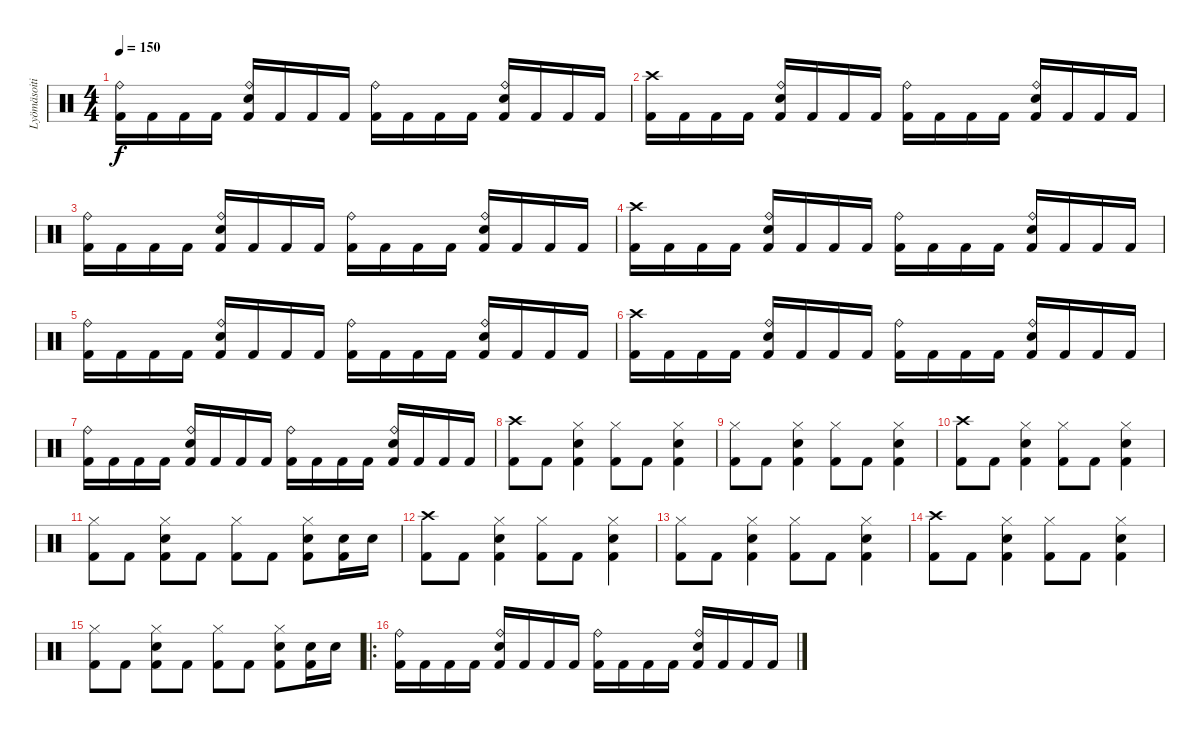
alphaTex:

\track ("Lyömäsoitin" "Lyömäsoiti") {instrument percussion}
\staff {score}
\articulation defaults
\ts (4 4)
\tempo 150
\clef neutral
\ks c
("Kick (hit) 2" "Ride (bell)").16{dy f} "Kick (hit) 2".16 "Kick (hit) 2".16 "Kick (hit) 2".16 ("Kick (hit) 2" "Ride (bell)" "Electric Snare (hit)").16 "Kick (hit) 2".16 "Kick (hit) 2".16 "Kick (hit) 2".16 ("Kick (hit) 2" "Ride (bell)").16 "Kick (hit) 2".16 "Kick (hit) 2".16 "Kick (hit) 2".16 ("Kick (hit) 2" "Ride (bell)" "Electric Snare (hit)").16 "Kick (hit) 2".16 "Kick (hit) 2".16 "Kick (hit) 2".16 |
("Kick (hit) 2" "Crash high (hit)").16 "Kick (hit) 2".16 "Kick (hit) 2".16 "Kick (hit) 2".16 ("Kick (hit) 2" "Electric Snare (hit)" "Ride (bell)").16 "Kick (hit) 2".16 "Kick (hit) 2".16 "Kick (hit) 2".16 ("Kick (hit) 2" "Ride (bell)").16 "Kick (hit) 2".16 "Kick (hit) 2".16 "Kick (hit) 2".16 ("Kick (hit) 2" "Ride (bell)" "Electric Snare (hit)").16 "Kick (hit) 2".16 "Kick (hit) 2".16 "Kick (hit) 2".16 |
("Kick (hit) 2" "Ride (bell)").16 "Kick (hit) 2".16 "Kick (hit) 2".16 "Kick (hit) 2".16 ("Kick (hit) 2" "Ride (bell)" "Electric Snare (hit)").16 "Kick (hit) 2".16 "Kick (hit) 2".16 "Kick (hit) 2".16 ("Kick (hit) 2" "Ride (bell)").16 "Kick (hit) 2".16 "Kick (hit) 2".16 "Kick (hit) 2".16 ("Kick (hit) 2" "Ride (bell)" "Electric Snare (hit)").16 "Kick (hit) 2".16 "Kick (hit) 2".16 "Kick (hit) 2".16 |
("Kick (hit) 2" "Crash high (hit)").16 "Kick (hit) 2".16 "Kick (hit) 2".16 "Kick (hit) 2".16 ("Kick (hit) 2" "Electric Snare (hit)" "Ride (bell)").16 "Kick (hit) 2".16 "Kick (hit) 2".16 "Kick (hit) 2".16 ("Kick (hit) 2" "Ride (bell)").16 "Kick (hit) 2".16 "Kick (hit) 2".16 "Kick (hit) 2".16 ("Kick (hit) 2" "Ride (bell)" "Electric Snare (hit)").16 "Kick (hit) 2".16 "Kick (hit) 2".16 "Kick (hit) 2".16 |
("Kick (hit) 2" "Ride (bell)").16 "Kick (hit) 2".16 "Kick (hit) 2".16 "Kick (hit) 2".16 ("Kick (hit) 2" "Ride (bell)" "Electric Snare (hit)").16 "Kick (hit) 2".16 "Kick (hit) 2".16 "Kick (hit) 2".16 ("Kick (hit) 2" "Ride (bell)").16 "Kick (hit) 2".16 "Kick (hit) 2".16 "Kick (hit) 2".16 ("Kick (hit) 2" "Ride (bell)" "Electric Snare (hit)").16 "Kick (hit) 2".16 "Kick (hit) 2".16 "Kick (hit) 2".16 |
("Kick (hit) 2" "Crash high (hit)").16 "Kick (hit) 2".16 "Kick (hit) 2".16 "Kick (hit) 2".16 ("Kick (hit) 2" "Electric Snare (hit)" "Ride (bell)").16 "Kick (hit) 2".16 "Kick (hit) 2".16 "Kick (hit) 2".16 ("Kick (hit) 2" "Ride (bell)").16 "Kick (hit) 2".16 "Kick (hit) 2".16 "Kick (hit) 2".16 ("Kick (hit) 2" "Ride (bell)" "Electric Snare (hit)").16 "Kick (hit) 2".16 "Kick (hit) 2".16 "Kick (hit) 2".16 |
("Kick (hit) 2" "Ride (bell)").16 "Kick (hit) 2".16 "Kick (hit) 2".16 "Kick (hit) 2".16 ("Kick (hit) 2" "Ride (bell)" "Electric Snare (hit)").16 "Kick (hit) 2".16 "Kick (hit) 2".16 "Kick (hit) 2".16 ("Kick (hit) 2" "Ride (bell)").16 "Kick (hit) 2".16 "Kick (hit) 2".16 "Kick (hit) 2".16 ("Kick (hit) 2" "Ride (bell)" "Electric Snare (hit)").16 "Kick (hit) 2".16 "Kick (hit) 2".16 "Kick (hit) 2".16 |
("Kick (hit) 2" "Crash high (hit)").8 "Kick (hit) 2".8 ("Kick (hit) 2" "Hi-Hat (closed)" "Electric Snare (hit)").4 ("Kick (hit) 2" "Hi-Hat (closed)").8 "Kick (hit) 2".8 ("Kick (hit) 2" "Hi-Hat (closed)" "Electric Snare (hit)").4 |
("Kick (hit) 2" "Hi-Hat (closed)").8 "Kick (hit) 2".8 ("Kick (hit) 2" "Hi-Hat (closed)" "Electric Snare (hit)").4 ("Kick (hit) 2" "Hi-Hat (closed)").8 "Kick (hit) 2".8 ("Kick (hit) 2" "Hi-Hat (closed)" "Electric Snare (hit)").4 |
("Kick (hit) 2" "Crash high (hit)").8 "Kick (hit) 2".8 ("Kick (hit) 2" "Hi-Hat (closed)" "Electric Snare (hit)").4 ("Kick (hit) 2" "Hi-Hat (closed)").8 "Kick (hit) 2".8 ("Kick (hit) 2" "Hi-Hat (closed)" "Electric Snare (hit)").4 |
("Kick (hit) 2" "Hi-Hat (closed)").8 "Kick (hit) 2".8 ("Kick (hit) 2" "Hi-Hat (closed)" "Electric Snare (hit)").8 "Kick (hit) 2".8 ("Kick (hit) 2" "Hi-Hat (closed)").8 "Kick (hit) 2".8 ("Kick (hit) 2" "Hi-Hat (closed)" "Electric Snare (hit)").8 ("Kick (hit) 2" "Electric Snare (hit)").16 "Electric Snare (hit)".16 |
("Kick (hit) 2" "Crash high (hit)").8 "Kick (hit) 2".8 ("Kick (hit) 2" "Hi-Hat (closed)" "Electric Snare (hit)").4 ("Kick (hit) 2" "Hi-Hat (closed)").8 "Kick (hit) 2".8 ("Kick (hit) 2" "Hi-Hat (closed)" "Electric Snare (hit)").4 |
("Kick (hit) 2" "Hi-Hat (closed)").8 "Kick (hit) 2".8 ("Kick (hit) 2" "Hi-Hat (closed)" "Electric Snare (hit)").4 ("Kick (hit) 2" "Hi-Hat (closed)").8 "Kick (hit) 2".8 ("Kick (hit) 2" "Hi-Hat (closed)" "Electric Snare (hit)").4 |
("Kick (hit) 2" "Crash high (hit)").8 "Kick (hit) 2".8 ("Kick (hit) 2" "Hi-Hat (closed)" "Electric Snare (hit)").4 ("Kick (hit) 2" "Hi-Hat (closed)").8 "Kick (hit) 2".8 ("Kick (hit) 2" "Hi-Hat (closed)" "Electric Snare (hit)").4 |
("Kick (hit) 2" "Hi-Hat (closed)").8 "Kick (hit) 2".8 ("Kick (hit) 2" "Hi-Hat (closed)" "Electric Snare (hit)").8 "Kick (hit) 2".8 ("Kick (hit) 2" "Hi-Hat (closed)").8 "Kick (hit) 2".8 ("Kick (hit) 2" "Hi-Hat (closed)" "Electric Snare (hit)").8 ("Kick (hit) 2" "Electric Snare (hit)").16 "Electric Snare (hit)".16 |
\ro
("Kick (hit) 2" "Ride (bell)").16 "Kick (hit) 2".16 "Kick (hit) 2".16 "Kick (hit) 2".16 ("Kick (hit) 2" "Electric Snare (hit)" "Ride (bell)").16 "Kick (hit) 2".16 "Kick (hit) 2".16 "Kick (hit) 2".16 ("Kick (hit) 2" "Ride (bell)").16 "Kick (hit) 2".16 "Kick (hit) 2".16 "Kick (hit) 2".16 ("Kick (hit) 2" "Ride (bell)" "Electric Snare (hit)").16 "Kick (hit) 2".16 "Kick (hit) 2".16 "Kick (hit) 2".16
